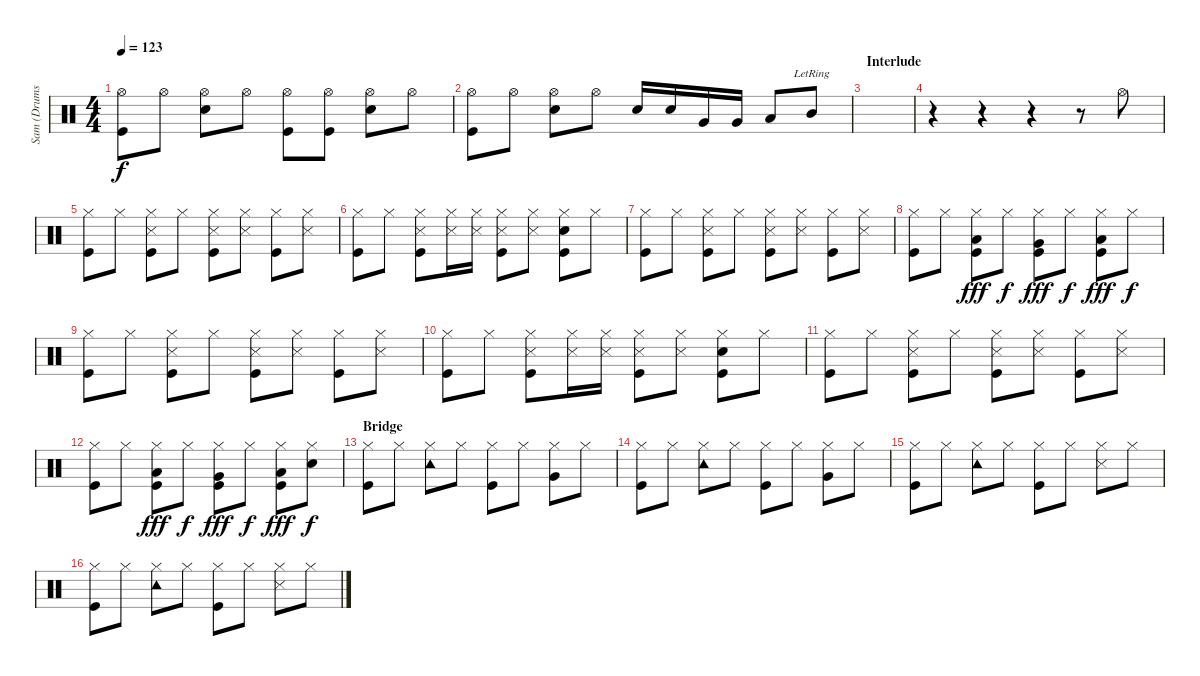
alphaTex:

\track ("Sam (Drums)" "Sam (Drums") {instrument percussion}
\staff {score}
\articulation defaults
\ts (4 4)
\tempo 123
\clef neutral
\ks c
("Hi-Hat (open)" "Kick (hit)").8{dy f} "Hi-Hat (open)".8 ("Hi-Hat (open)" "Snare (hit) 2").8 "Hi-Hat (open)".8 ("Hi-Hat (open)" "Kick (hit)").8 ("Hi-Hat (open)" "Kick (hit)").8 ("Hi-Hat (open)" "Snare (hit) 2").8 "Hi-Hat (open)".8 |
("Hi-Hat (open)" "Kick (hit)").8 "Hi-Hat (open)".8 ("Hi-Hat (open)" "Snare (hit) 2").8 "Hi-Hat (open)".8 "Snare (hit) 2".16 "Snare (hit) 2".16 "Very Low Tom (hit)".16 "Very Low Tom (hit)".16 "Low Floor Tom (hit)".8 "Mid Tom (hit)"{lr}.8 |
\section ("" "Interlude")
|
r.4 r.4 r.4 r.8 "Hi-Hat (open)".8 |
("Hi-Hat (closed)" "Kick (hit)").8 "Hi-Hat (closed)".8 ("Hi-Hat (closed)" "Snare (side stick) 3" "Kick (hit)").8 "Hi-Hat (closed)".8 ("Hi-Hat (closed)" "Snare (side stick) 3" "Kick (hit)").8 ("Hi-Hat (closed)" "Snare (side stick) 3").8 ("Hi-Hat (closed)" "Kick (hit)").8 ("Hi-Hat (closed)" "Snare (side stick) 3").8 |
("Hi-Hat (closed)" "Kick (hit)").8 "Hi-Hat (closed)".8 ("Hi-Hat (closed)" "Snare (side stick) 3" "Kick (hit)").8 ("Hi-Hat (closed)" "Snare (side stick) 3").16 ("Hi-Hat (closed)" "Snare (side stick) 3").16 ("Hi-Hat (closed)" "Snare (side stick) 3" "Kick (hit)").8 ("Hi-Hat (closed)" "Snare (side stick) 3").8 ("Hi-Hat (closed)" "Snare (hit) 2" "Kick (hit)").8 "Hi-Hat (closed)".8 |
("Hi-Hat (closed)" "Kick (hit)").8 "Hi-Hat (closed)".8 ("Hi-Hat (closed)" "Snare (side stick) 3" "Kick (hit)").8 "Hi-Hat (closed)".8 ("Hi-Hat (closed)" "Snare (side stick) 3" "Kick (hit)").8 ("Hi-Hat (closed)" "Snare (side stick) 3").8 ("Hi-Hat (closed)" "Kick (hit)").8 ("Hi-Hat (closed)" "Snare (side stick) 3").8 |
("Hi-Hat (closed)" "Kick (hit)").8 "Hi-Hat (closed)".8 ("Hi-Hat (closed)" "Low Tom (hit)" "Kick (hit)").8{dy fff} "Hi-Hat (closed)".8{dy f} ("Hi-Hat (closed)" "Very Low Tom (hit)" "Kick (hit)").8{dy fff} "Hi-Hat (closed)".8{dy f} ("Hi-Hat (closed)" "Low Floor Tom (hit)" "Kick (hit)").8{dy fff} "Hi-Hat (closed)".8{dy f} |
("Hi-Hat (closed)" "Kick (hit)").8 "Hi-Hat (closed)".8 ("Hi-Hat (closed)" "Snare (side stick) 3" "Kick (hit)").8 "Hi-Hat (closed)".8 ("Hi-Hat (closed)" "Snare (side stick) 3" "Kick (hit)").8 ("Hi-Hat (closed)" "Snare (side stick) 3").8 ("Hi-Hat (closed)" "Kick (hit)").8 ("Hi-Hat (closed)" "Snare (side stick) 3").8 |
("Hi-Hat (closed)" "Kick (hit)").8 "Hi-Hat (closed)".8 ("Hi-Hat (closed)" "Snare (side stick) 3" "Kick (hit)").8 ("Hi-Hat (closed)" "Snare (side stick) 3").16 ("Hi-Hat (closed)" "Snare (side stick) 3").16 ("Hi-Hat (closed)" "Snare (side stick) 3" "Kick (hit)").8 ("Hi-Hat (closed)" "Snare (side stick) 3").8 ("Hi-Hat (closed)" "Snare (hit) 2" "Kick (hit)").8 "Hi-Hat (closed)".8 |
("Hi-Hat (closed)" "Kick (hit)").8 "Hi-Hat (closed)".8 ("Hi-Hat (closed)" "Snare (side stick) 3" "Kick (hit)").8 "Hi-Hat (closed)".8 ("Hi-Hat (closed)" "Snare (side stick) 3" "Kick (hit)").8 ("Hi-Hat (closed)" "Snare (side stick) 3").8 ("Hi-Hat (closed)" "Kick (hit)").8 ("Hi-Hat (closed)" "Snare (side stick) 3").8 |
("Hi-Hat (closed)" "Kick (hit)").8 "Hi-Hat (closed)".8 ("Hi-Hat (closed)" "Low Tom (hit)" "Kick (hit)").8{dy fff} "Hi-Hat (closed)".8{dy f} ("Hi-Hat (closed)" "Very Low Tom (hit)" "Kick (hit)").8{dy fff} "Hi-Hat (closed)".8{dy f} ("Hi-Hat (closed)" "Low Floor Tom (hit)" "Kick (hit)").8{dy fff} ("Hi-Hat (closed)" "Snare (hit) 2").8{dy f} |
\section ("" "Bridge")
("Hi-Hat (closed)" "Kick (hit)").8 "Hi-Hat (closed)".8 ("Hi-Hat (closed)" "Tambourine (hit)").8 "Hi-Hat (closed)".8 ("Hi-Hat (closed)" "Kick (hit)").8 "Hi-Hat (closed)".8 ("Hi-Hat (closed)" "Very Low Tom (hit)").8 "Hi-Hat (closed)".8 |
("Hi-Hat (closed)" "Kick (hit)").8 "Hi-Hat (closed)".8 ("Hi-Hat (closed)" "Tambourine (hit)").8 "Hi-Hat (closed)".8 ("Hi-Hat (closed)" "Kick (hit)").8 "Hi-Hat (closed)".8 ("Hi-Hat (closed)" "Very Low Tom (hit)").8 "Hi-Hat (closed)".8 |
("Hi-Hat (closed)" "Kick (hit)").8 "Hi-Hat (closed)".8 ("Hi-Hat (closed)" "Tambourine (hit)").8 "Hi-Hat (closed)".8 ("Hi-Hat (closed)" "Kick (hit)").8 "Hi-Hat (closed)".8 ("Hi-Hat (closed)" "Snare (side stick) 3").8 "Hi-Hat (closed)".8 |
("Hi-Hat (closed)" "Kick (hit)").8 "Hi-Hat (closed)".8 ("Hi-Hat (closed)" "Tambourine (hit)").8 "Hi-Hat (closed)".8 ("Hi-Hat (closed)" "Kick (hit)").8 "Hi-Hat (closed)".8 ("Hi-Hat (closed)" "Snare (side stick) 3").8 "Hi-Hat (closed)".8
